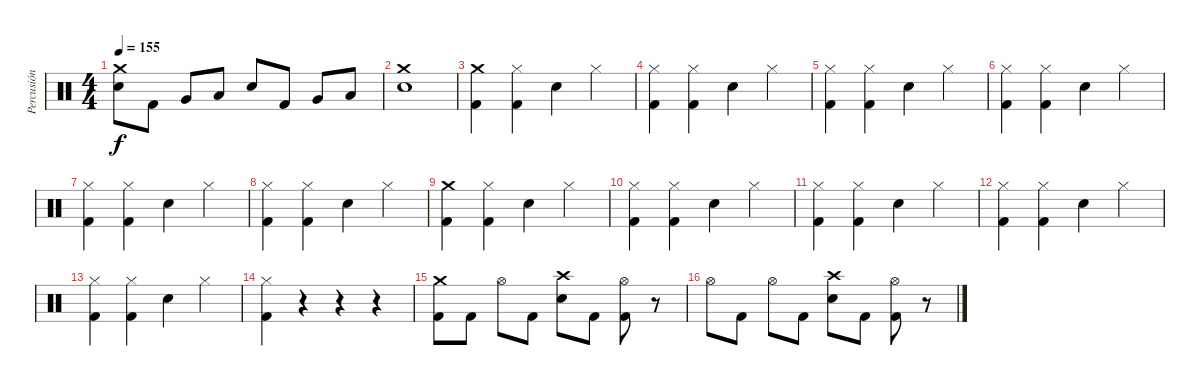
\track ("Percusión" "Percusión") {instrument percussion}
\staff {score}
\articulation defaults
\ts (4 4)
\tempo 155
\clef neutral
\ks c
("Crash medium (hit)" "Electric Snare (hit)").8{dy f} "Kick (hit) 2".8 "Very Low Tom (hit)".8 "Low Floor Tom (hit)".8 "Electric Snare (hit)".8 "Kick (hit) 2".8 "Very Low Tom (hit)".8 "Low Floor Tom (hit)".8 |
("Crash medium (hit)" "Electric Snare (hit)").1 |
("Crash medium (hit)" "Kick (hit) 2").4 ("Hi-Hat (closed)" "Kick (hit) 2").4 "Electric Snare (hit)".4 "Hi-Hat (closed)".4 |
("Hi-Hat (closed)" "Kick (hit) 2").4 ("Hi-Hat (closed)" "Kick (hit) 2").4 "Electric Snare (hit)".4 "Hi-Hat (closed)".4 |
("Hi-Hat (closed)" "Kick (hit) 2").4 ("Hi-Hat (closed)" "Kick (hit) 2").4 "Electric Snare (hit)".4 "Hi-Hat (closed)".4 |
("Hi-Hat (closed)" "Kick (hit) 2").4 ("Hi-Hat (closed)" "Kick (hit) 2").4 "Electric Snare (hit)".4 "Hi-Hat (closed)".4 |
("Hi-Hat (closed)" "Kick (hit) 2").4 ("Hi-Hat (closed)" "Kick (hit) 2").4 "Electric Snare (hit)".4 "Hi-Hat (closed)".4 |
("Hi-Hat (closed)" "Kick (hit) 2").4 ("Hi-Hat (closed)" "Kick (hit) 2").4 "Electric Snare (hit)".4 "Hi-Hat (closed)".4 |
("Crash medium (hit)" "Kick (hit) 2").4 ("Hi-Hat (closed)" "Kick (hit) 2").4 "Electric Snare (hit)".4 "Hi-Hat (closed)".4 |
("Hi-Hat (closed)" "Kick (hit) 2").4 ("Hi-Hat (closed)" "Kick (hit) 2").4 "Electric Snare (hit)".4 "Hi-Hat (closed)".4 |
("Hi-Hat (closed)" "Kick (hit) 2").4 ("Hi-Hat (closed)" "Kick (hit) 2").4 "Electric Snare (hit)".4 "Hi-Hat (closed)".4 |
("Hi-Hat (closed)" "Kick (hit) 2").4 ("Hi-Hat (closed)" "Kick (hit) 2").4 "Electric Snare (hit)".4 "Hi-Hat (closed)".4 |
("Hi-Hat (closed)" "Kick (hit) 2").4 ("Hi-Hat (closed)" "Kick (hit) 2").4 "Electric Snare (hit)".4 "Hi-Hat (closed)".4 |
("Hi-Hat (closed)" "Kick (hit) 2").4 r.4 r.4 r.4 |
("Crash medium (hit)" "Kick (hit) 2").8 "Kick (hit) 2".8 "Hi-Hat (open)".8 "Kick (hit) 2".8 ("Crash high (hit)" "Electric Snare (hit)").8 "Kick (hit) 2".8 ("Hi-Hat (open)" "Kick (hit) 2").8 r.8 |
"Hi-Hat (open)".8 "Kick (hit) 2".8 "Hi-Hat (open)".8 "Kick (hit) 2".8 ("Crash high (hit)" "Electric Snare (hit)").8 "Kick (hit) 2".8 ("Hi-Hat (open)" "Kick (hit) 2").8 r.8
